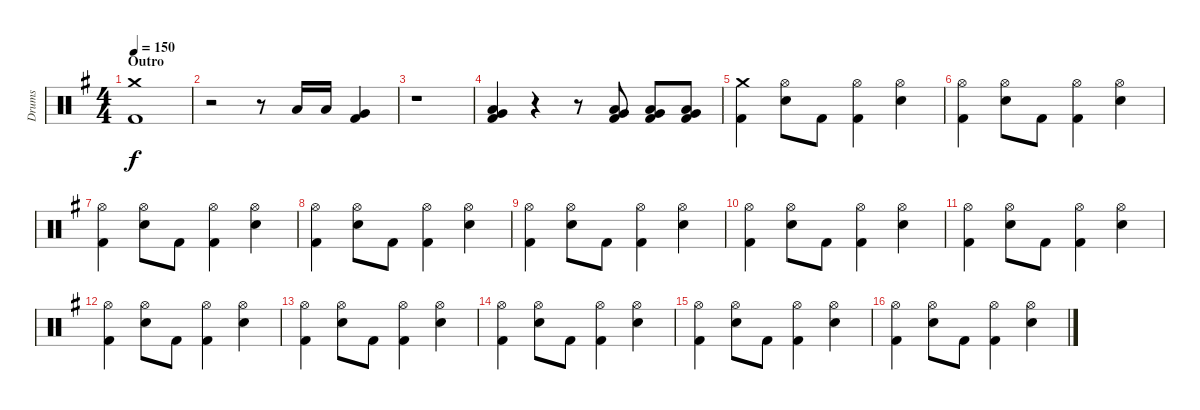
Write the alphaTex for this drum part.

\track ("Drums" "Drums") {instrument percussion}
\staff {score}
\articulation defaults
\ts (4 4)
\section ("" "Outro")
\tempo 150
\clef neutral
\ks g
("Crash medium (hit)" "Kick (hit) 2").1{dy f} |
r.2 r.8 "Low Tom (hit)".16 "Low Tom (hit)".16 ("Very Low Tom (hit)" "Kick (hit) 2").4 |
r.1 |
("Low Tom (hit)" "Very Low Tom (hit)" "Kick (hit) 2").4 r.4 r.8 ("Low Tom (hit)" "Very Low Tom (hit)" "Kick (hit) 2").8 ("Low Tom (hit)" "Very Low Tom (hit)" "Kick (hit) 2").8 ("Low Tom (hit)" "Very Low Tom (hit)" "Kick (hit) 2").8 |
("Crash medium (hit)" "Kick (hit) 2").4 ("Hi-Hat (open)" "Snare (hit) 2").8 "Kick (hit) 2".8 ("Hi-Hat (open)" "Kick (hit) 2").4 ("Hi-Hat (open)" "Snare (hit) 2").4 |
("Hi-Hat (open)" "Kick (hit) 2").4 ("Hi-Hat (open)" "Snare (hit) 2").8 "Kick (hit) 2".8 ("Hi-Hat (open)" "Kick (hit) 2").4 ("Hi-Hat (open)" "Snare (hit) 2").4 |
("Hi-Hat (open)" "Kick (hit) 2").4 ("Hi-Hat (open)" "Snare (hit) 2").8 "Kick (hit) 2".8 ("Hi-Hat (open)" "Kick (hit) 2").4 ("Hi-Hat (open)" "Snare (hit) 2").4 |
("Hi-Hat (open)" "Kick (hit) 2").4 ("Hi-Hat (open)" "Snare (hit) 2").8 "Kick (hit) 2".8 ("Hi-Hat (open)" "Kick (hit) 2").4 ("Hi-Hat (open)" "Snare (hit) 2").4 |
("Hi-Hat (open)" "Kick (hit) 2").4 ("Hi-Hat (open)" "Snare (hit) 2").8 "Kick (hit) 2".8 ("Hi-Hat (open)" "Kick (hit) 2").4 ("Hi-Hat (open)" "Snare (hit) 2").4 |
("Hi-Hat (open)" "Kick (hit) 2").4 ("Hi-Hat (open)" "Snare (hit) 2").8 "Kick (hit) 2".8 ("Hi-Hat (open)" "Kick (hit) 2").4 ("Hi-Hat (open)" "Snare (hit) 2").4 |
("Hi-Hat (open)" "Kick (hit) 2").4 ("Hi-Hat (open)" "Snare (hit) 2").8 "Kick (hit) 2".8 ("Hi-Hat (open)" "Kick (hit) 2").4 ("Hi-Hat (open)" "Snare (hit) 2").4 |
("Hi-Hat (open)" "Kick (hit) 2").4 ("Hi-Hat (open)" "Snare (hit) 2").8 "Kick (hit) 2".8 ("Hi-Hat (open)" "Kick (hit) 2").4 ("Hi-Hat (open)" "Snare (hit) 2").4 |
("Hi-Hat (open)" "Kick (hit) 2").4 ("Hi-Hat (open)" "Snare (hit) 2").8 "Kick (hit) 2".8 ("Hi-Hat (open)" "Kick (hit) 2").4 ("Hi-Hat (open)" "Snare (hit) 2").4 |
("Hi-Hat (open)" "Kick (hit) 2").4 ("Hi-Hat (open)" "Snare (hit) 2").8 "Kick (hit) 2".8 ("Hi-Hat (open)" "Kick (hit) 2").4 ("Hi-Hat (open)" "Snare (hit) 2").4 |
("Hi-Hat (open)" "Kick (hit) 2").4 ("Hi-Hat (open)" "Snare (hit) 2").8 "Kick (hit) 2".8 ("Hi-Hat (open)" "Kick (hit) 2").4 ("Hi-Hat (open)" "Snare (hit) 2").4 |
("Hi-Hat (open)" "Kick (hit) 2").4 ("Hi-Hat (open)" "Snare (hit) 2").8 "Kick (hit) 2".8 ("Hi-Hat (open)" "Kick (hit) 2").4 ("Hi-Hat (open)" "Snare (hit) 2").4
